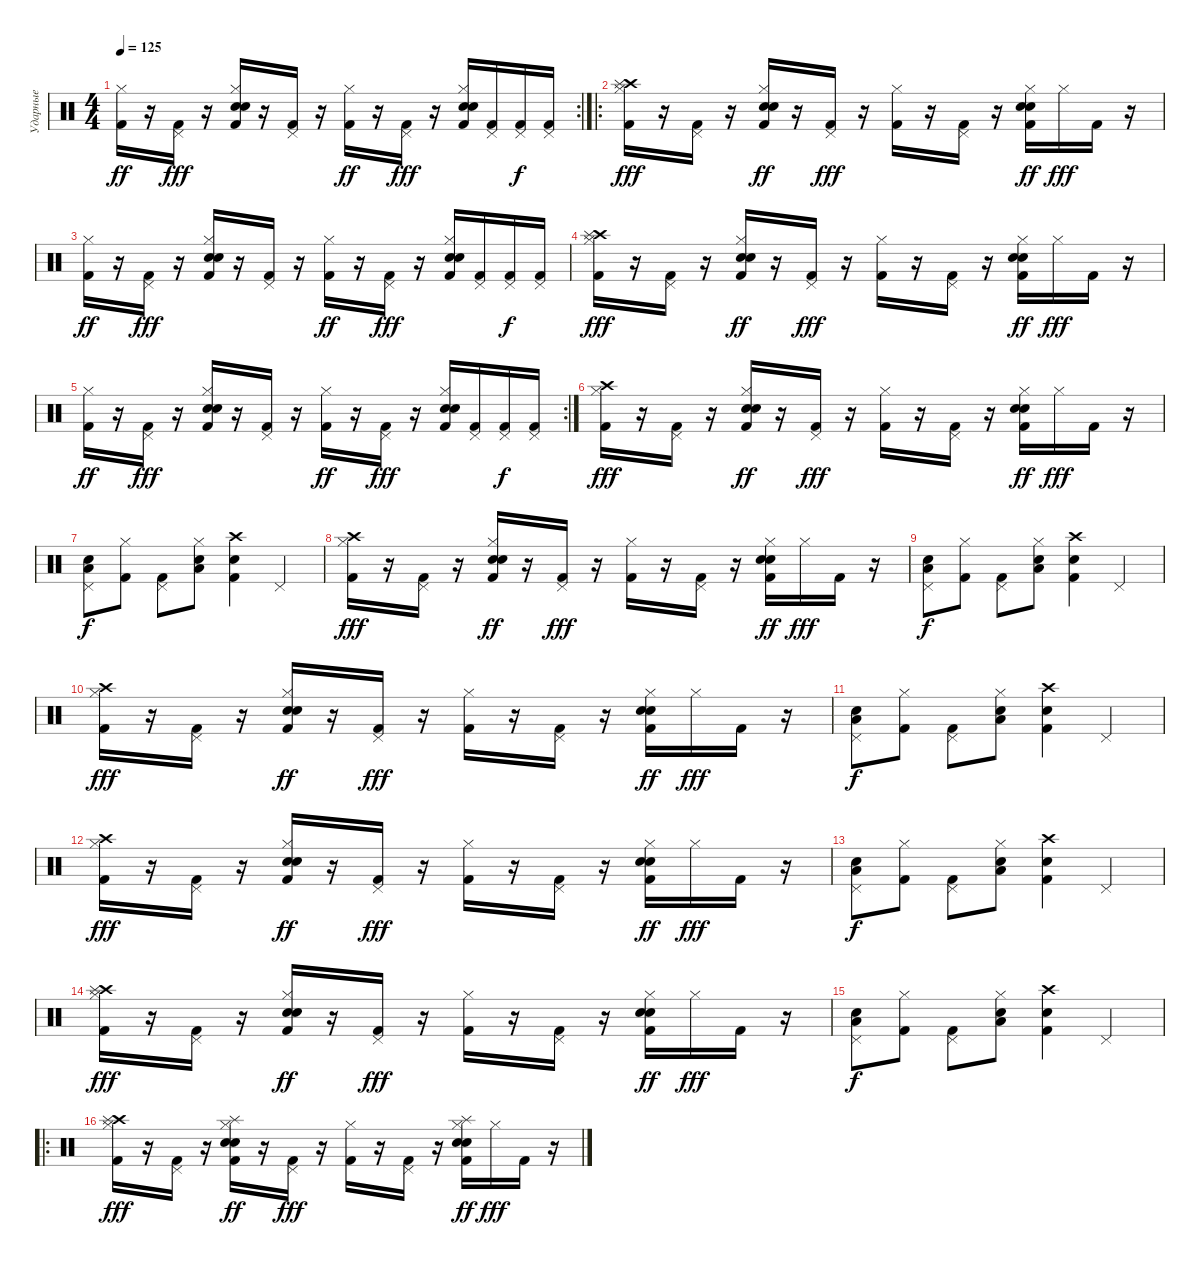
\track ("Ударные" "Ударные") {instrument percussion}
\staff {score}
\articulation defaults
\rc 2
\ts (4 4)
\tempo 125
\clef neutral
\ks c
("Kick (hit) 2" "Hi-Hat (closed)").16{dy ff} r.16 ("Pedal Hi-Hat (hit)" "Kick (hit) 2").16{dy fff} r.16 ("Kick (hit) 2" "Hand Clap (hit)" "Hi-Hat (closed)" "Snare (hit) 2").16 r.16 ("Pedal Hi-Hat (hit)" "Kick (hit) 2").16 r.16 ("Kick (hit) 2" "Hi-Hat (closed)").16{dy ff} r.16 ("Pedal Hi-Hat (hit)" "Kick (hit) 2").16{dy fff} r.16 ("Kick (hit) 2" "Hand Clap (hit)" "Hi-Hat (closed)" "Snare (hit) 2").16 ("Pedal Hi-Hat (hit)" "Kick (hit) 2").16 ("Pedal Hi-Hat (hit)" "Kick (hit) 2").16{dy f} ("Pedal Hi-Hat (hit)" "Kick (hit) 2").16 |
\ro
("Kick (hit) 2" "Hi-Hat (closed)" "Crash high (hit)" "Splash (hit)").16{dy fff} r.16 ("Pedal Hi-Hat (hit)" "Kick (hit) 2").16 r.16 ("Kick (hit) 2" "Hand Clap (hit)" "Hi-Hat (closed)" "Snare (hit) 2").16{dy ff} r.16 ("Pedal Hi-Hat (hit)" "Kick (hit) 2").16{dy fff} r.16 ("Kick (hit) 2" "Hi-Hat (closed)").16 r.16 ("Pedal Hi-Hat (hit)" "Kick (hit) 2").16 r.16 ("Kick (hit) 2" "Hand Clap (hit)" "Hi-Hat (closed)" "Snare (hit) 2").16{dy ff} "Hi-Hat (closed)".16{dy fff} "Kick (hit) 2".16 r.16 |
("Kick (hit) 2" "Hi-Hat (closed)").16{dy ff} r.16 ("Pedal Hi-Hat (hit)" "Kick (hit) 2").16{dy fff} r.16 ("Kick (hit) 2" "Hand Clap (hit)" "Hi-Hat (closed)" "Snare (hit) 2").16 r.16 ("Pedal Hi-Hat (hit)" "Kick (hit) 2").16 r.16 ("Kick (hit) 2" "Hi-Hat (closed)").16{dy ff} r.16 ("Pedal Hi-Hat (hit)" "Kick (hit) 2").16{dy fff} r.16 ("Kick (hit) 2" "Hand Clap (hit)" "Hi-Hat (closed)" "Snare (hit) 2").16 ("Pedal Hi-Hat (hit)" "Kick (hit) 2").16 ("Pedal Hi-Hat (hit)" "Kick (hit) 2").16{dy f} ("Pedal Hi-Hat (hit)" "Kick (hit) 2").16 |
("Kick (hit) 2" "Hi-Hat (closed)" "Crash high (hit)" "Splash (hit)").16{dy fff} r.16 ("Pedal Hi-Hat (hit)" "Kick (hit) 2").16 r.16 ("Kick (hit) 2" "Hand Clap (hit)" "Hi-Hat (closed)" "Snare (hit) 2").16{dy ff} r.16 ("Pedal Hi-Hat (hit)" "Kick (hit) 2").16{dy fff} r.16 ("Kick (hit) 2" "Hi-Hat (closed)").16 r.16 ("Pedal Hi-Hat (hit)" "Kick (hit) 2").16 r.16 ("Kick (hit) 2" "Hand Clap (hit)" "Hi-Hat (closed)" "Snare (hit) 2").16{dy ff} "Hi-Hat (closed)".16{dy fff} "Kick (hit) 2".16 r.16 |
\rc 2
("Kick (hit) 2" "Hi-Hat (closed)").16{dy ff} r.16 ("Pedal Hi-Hat (hit)" "Kick (hit) 2").16{dy fff} r.16 ("Kick (hit) 2" "Hand Clap (hit)" "Hi-Hat (closed)" "Snare (hit) 2").16 r.16 ("Pedal Hi-Hat (hit)" "Kick (hit) 2").16 r.16 ("Kick (hit) 2" "Hi-Hat (closed)").16{dy ff} r.16 ("Pedal Hi-Hat (hit)" "Kick (hit) 2").16{dy fff} r.16 ("Kick (hit) 2" "Hand Clap (hit)" "Hi-Hat (closed)" "Snare (hit) 2").16 ("Pedal Hi-Hat (hit)" "Kick (hit) 2").16 ("Pedal Hi-Hat (hit)" "Kick (hit) 2").16{dy f} ("Pedal Hi-Hat (hit)" "Kick (hit) 2").16 |
("Kick (hit) 2" "Hi-Hat (closed)" "Crash high (hit)").16{dy fff} r.16 ("Pedal Hi-Hat (hit)" "Kick (hit) 2").16 r.16 ("Kick (hit) 2" "Hand Clap (hit)" "Hi-Hat (closed)" "Snare (hit) 2").16{dy ff} r.16 ("Pedal Hi-Hat (hit)" "Kick (hit) 2").16{dy fff} r.16 ("Kick (hit) 2" "Hi-Hat (closed)").16 r.16 ("Pedal Hi-Hat (hit)" "Kick (hit) 2").16 r.16 ("Kick (hit) 2" "Hand Clap (hit)" "Hi-Hat (closed)" "Snare (hit) 2").16{dy ff} "Hi-Hat (closed)".16{dy fff} "Kick (hit) 2".16 r.16 |
("Snare (hit) 2" "Pedal Hi-Hat (hit)" "Low Floor Tom (hit)").8{dy f} ("Kick (hit) 2" "Hi-Hat (closed)").8 ("Kick (hit) 2" "Pedal Hi-Hat (hit)").8 ("Hi-Hat (closed)" "Snare (hit) 2" "Low Floor Tom (hit)").8 ("Crash high (hit)" "Snare (hit) 2" "Kick (hit) 2").4 "Pedal Hi-Hat (hit)".4 |
("Kick (hit) 2" "Hi-Hat (closed)" "Crash high (hit)").16{dy fff} r.16 ("Pedal Hi-Hat (hit)" "Kick (hit) 2").16 r.16 ("Kick (hit) 2" "Hand Clap (hit)" "Hi-Hat (closed)" "Snare (hit) 2").16{dy ff} r.16 ("Pedal Hi-Hat (hit)" "Kick (hit) 2").16{dy fff} r.16 ("Kick (hit) 2" "Hi-Hat (closed)").16 r.16 ("Pedal Hi-Hat (hit)" "Kick (hit) 2").16 r.16 ("Kick (hit) 2" "Hand Clap (hit)" "Hi-Hat (closed)" "Snare (hit) 2").16{dy ff} "Hi-Hat (closed)".16{dy fff} "Kick (hit) 2".16 r.16 |
("Snare (hit) 2" "Pedal Hi-Hat (hit)" "Low Floor Tom (hit)").8{dy f} ("Kick (hit) 2" "Hi-Hat (closed)").8 ("Kick (hit) 2" "Pedal Hi-Hat (hit)").8 ("Hi-Hat (closed)" "Snare (hit) 2" "Low Floor Tom (hit)").8 ("Crash high (hit)" "Snare (hit) 2" "Kick (hit) 2").4 "Pedal Hi-Hat (hit)".4 |
("Kick (hit) 2" "Hi-Hat (closed)" "Crash high (hit)").16{dy fff} r.16 ("Pedal Hi-Hat (hit)" "Kick (hit) 2").16 r.16 ("Kick (hit) 2" "Hand Clap (hit)" "Hi-Hat (closed)" "Snare (hit) 2").16{dy ff} r.16 ("Pedal Hi-Hat (hit)" "Kick (hit) 2").16{dy fff} r.16 ("Kick (hit) 2" "Hi-Hat (closed)").16 r.16 ("Pedal Hi-Hat (hit)" "Kick (hit) 2").16 r.16 ("Kick (hit) 2" "Hand Clap (hit)" "Hi-Hat (closed)" "Snare (hit) 2").16{dy ff} "Hi-Hat (closed)".16{dy fff} "Kick (hit) 2".16 r.16 |
("Snare (hit) 2" "Pedal Hi-Hat (hit)" "Low Floor Tom (hit)").8{dy f} ("Kick (hit) 2" "Hi-Hat (closed)").8 ("Kick (hit) 2" "Pedal Hi-Hat (hit)").8 ("Hi-Hat (closed)" "Snare (hit) 2" "Low Floor Tom (hit)").8 ("Crash high (hit)" "Snare (hit) 2" "Kick (hit) 2").4 "Pedal Hi-Hat (hit)".4 |
("Kick (hit) 2" "Hi-Hat (closed)" "Crash high (hit)").16{dy fff} r.16 ("Pedal Hi-Hat (hit)" "Kick (hit) 2").16 r.16 ("Kick (hit) 2" "Hand Clap (hit)" "Hi-Hat (closed)" "Snare (hit) 2").16{dy ff} r.16 ("Pedal Hi-Hat (hit)" "Kick (hit) 2").16{dy fff} r.16 ("Kick (hit) 2" "Hi-Hat (closed)").16 r.16 ("Pedal Hi-Hat (hit)" "Kick (hit) 2").16 r.16 ("Kick (hit) 2" "Hand Clap (hit)" "Hi-Hat (closed)" "Snare (hit) 2").16{dy ff} "Hi-Hat (closed)".16{dy fff} "Kick (hit) 2".16 r.16 |
("Snare (hit) 2" "Pedal Hi-Hat (hit)" "Low Floor Tom (hit)").8{dy f} ("Kick (hit) 2" "Hi-Hat (closed)").8 ("Kick (hit) 2" "Pedal Hi-Hat (hit)").8 ("Hi-Hat (closed)" "Snare (hit) 2" "Low Floor Tom (hit)").8 ("Crash high (hit)" "Snare (hit) 2" "Kick (hit) 2").4 "Pedal Hi-Hat (hit)".4 |
("Kick (hit) 2" "Hi-Hat (closed)" "Crash high (hit)" "Splash (hit)").16{dy fff} r.16 ("Pedal Hi-Hat (hit)" "Kick (hit) 2").16 r.16 ("Kick (hit) 2" "Hand Clap (hit)" "Hi-Hat (closed)" "Snare (hit) 2").16{dy ff} r.16 ("Pedal Hi-Hat (hit)" "Kick (hit) 2").16{dy fff} r.16 ("Kick (hit) 2" "Hi-Hat (closed)").16 r.16 ("Pedal Hi-Hat (hit)" "Kick (hit) 2").16 r.16 ("Kick (hit) 2" "Hand Clap (hit)" "Hi-Hat (closed)" "Snare (hit) 2").16{dy ff} "Hi-Hat (closed)".16{dy fff} "Kick (hit) 2".16 r.16 |
("Snare (hit) 2" "Pedal Hi-Hat (hit)" "Low Floor Tom (hit)").8{dy f} ("Kick (hit) 2" "Hi-Hat (closed)").8 ("Kick (hit) 2" "Pedal Hi-Hat (hit)").8 ("Hi-Hat (closed)" "Snare (hit) 2" "Low Floor Tom (hit)").8 ("Crash high (hit)" "Snare (hit) 2" "Kick (hit) 2").4 "Pedal Hi-Hat (hit)".4 |
\ro
("Kick (hit) 2" "Hi-Hat (closed)" "Crash high (hit)" "Splash (hit)").16{dy fff} r.16 ("Pedal Hi-Hat (hit)" "Kick (hit) 2").16 r.16 ("Kick (hit) 2" "Hand Clap (hit)" "Hi-Hat (closed)" "Snare (hit) 2" "Splash (hit)").16{dy ff} r.16 ("Pedal Hi-Hat (hit)" "Kick (hit) 2").16{dy fff} r.16 ("Kick (hit) 2" "Hi-Hat (closed)").16 r.16 ("Pedal Hi-Hat (hit)" "Kick (hit) 2").16 r.16 ("Kick (hit) 2" "Hand Clap (hit)" "Hi-Hat (closed)" "Snare (hit) 2" "Splash (hit)").16{dy ff} "Hi-Hat (closed)".16{dy fff} "Kick (hit) 2".16 r.16
